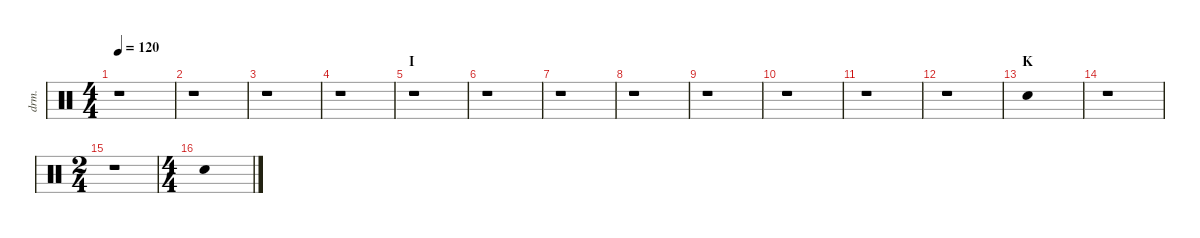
\defaultSystemsLayout 4
\hideDynamics
\bracketExtendMode nobrackets
\track ("Kb." "drm.") {instrument percussion}
\staff {score}
\articulation defaults
\ts (4 4)
\tempo 120
\clef neutral
\ks c
r.1{dy f} |
r.1 |
r.1 |
r.1 |
\section ("" "I")
r.1 |
r.1 |
r.1 |
r.1 |
r.1 |
r.1 |
r.1 |
r.1 |
\section ("" "K")
"Metronome (bell)".1 |
r.1 |
\ts (2 4)
r.1 |
\ts (4 4)
"Metronome (bell)".1
